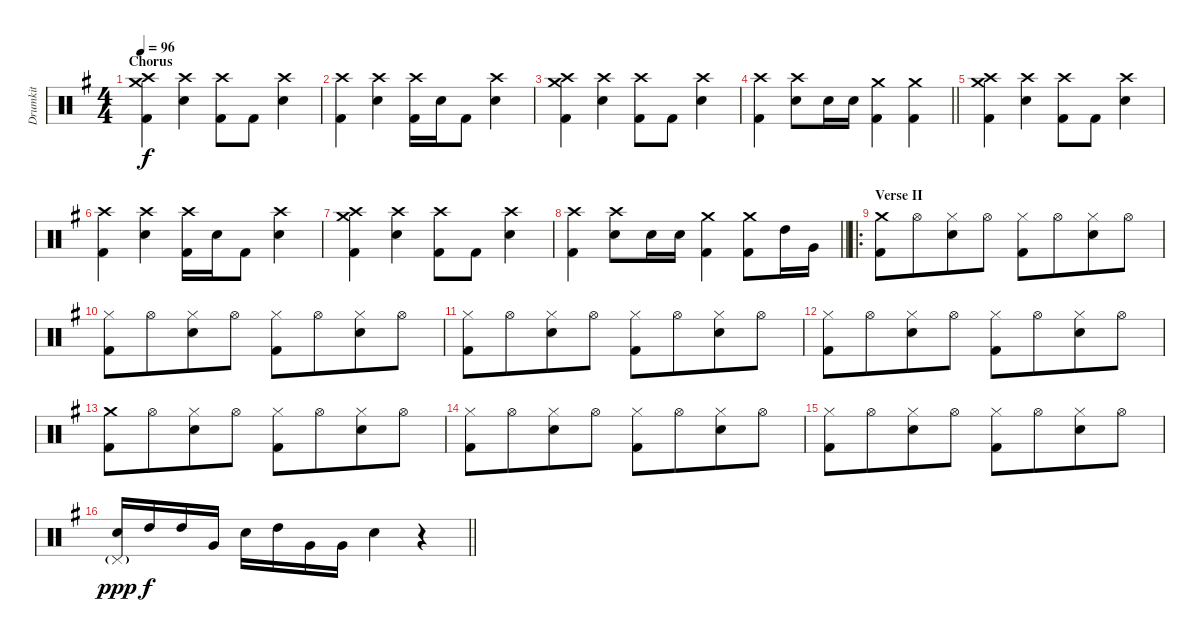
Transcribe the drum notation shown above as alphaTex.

\track ("Drumkit" "Drumkit") {instrument percussion}
\staff {score}
\articulation defaults
\ts (4 4)
\section ("" "Chorus")
\tempo 96
\clef neutral
\ks eminor
("Crash high (hit)" "Crash medium (hit)" "Kick (hit) 2").4{dy f} ("Crash high (hit)" "Electric Snare (hit)").4 ("Crash high (hit)" "Kick (hit) 2").8 "Kick (hit) 2".8 ("Crash high (hit)" "Electric Snare (hit)").4 |
("Crash high (hit)" "Kick (hit) 2").4 ("Crash high (hit)" "Electric Snare (hit)").4 ("Crash high (hit)" "Kick (hit) 2").16 "Electric Snare (hit)".16 "Kick (hit) 2".8 ("Crash high (hit)" "Electric Snare (hit)").4 |
("Crash high (hit)" "Crash medium (hit)" "Kick (hit) 2").4 ("Crash high (hit)" "Electric Snare (hit)").4 ("Crash high (hit)" "Kick (hit) 2").8 "Kick (hit) 2".8 ("Crash high (hit)" "Electric Snare (hit)").4 |
\barLineRight lightlight
("Crash high (hit)" "Kick (hit) 2").4 ("Crash high (hit)" "Electric Snare (hit)").8 "Electric Snare (hit)".16 "Electric Snare (hit)".16 ("Crash medium (hit)" "Kick (hit) 2").4 ("Crash medium (hit)" "Kick (hit) 2").4 |
("Crash high (hit)" "Crash medium (hit)" "Kick (hit) 2").4 ("Crash high (hit)" "Electric Snare (hit)").4 ("Crash high (hit)" "Kick (hit) 2").8 "Kick (hit) 2".8 ("Crash high (hit)" "Electric Snare (hit)").4 |
("Crash high (hit)" "Kick (hit) 2").4 ("Crash high (hit)" "Electric Snare (hit)").4 ("Crash high (hit)" "Kick (hit) 2").16 "Electric Snare (hit)".16 "Kick (hit) 2".8 ("Crash high (hit)" "Electric Snare (hit)").4 |
("Crash high (hit)" "Crash medium (hit)" "Kick (hit) 2").4 ("Crash high (hit)" "Electric Snare (hit)").4 ("Crash high (hit)" "Kick (hit) 2").8 "Kick (hit) 2".8 ("Crash high (hit)" "Electric Snare (hit)").4 |
\barLineRight lightlight
("Crash high (hit)" "Kick (hit) 2").4 ("Crash high (hit)" "Electric Snare (hit)").8 "Electric Snare (hit)".16 "Electric Snare (hit)".16 ("Crash medium (hit)" "Kick (hit) 2").4 ("Crash medium (hit)" "Kick (hit) 2").8 "High Tom (hit)".16 "Very Low Tom (hit)".16 |
\ro
\section ("" "Verse II")
("Crash medium (hit)" "Kick (hit) 2").8 "Hi-Hat (open)".8{beam merge} ("Hi-Hat (closed)" "Electric Snare (hit)").8 "Hi-Hat (open)".8 ("Hi-Hat (closed)" "Kick (hit) 2").8 "Hi-Hat (open)".8{beam merge} ("Hi-Hat (closed)" "Electric Snare (hit)").8 "Hi-Hat (open)".8 |
("Hi-Hat (closed)" "Kick (hit) 2").8 "Hi-Hat (open)".8{beam merge} ("Hi-Hat (closed)" "Electric Snare (hit)").8 "Hi-Hat (open)".8 ("Hi-Hat (closed)" "Kick (hit) 2").8 "Hi-Hat (open)".8{beam merge} ("Hi-Hat (closed)" "Electric Snare (hit)").8 "Hi-Hat (open)".8 |
("Hi-Hat (closed)" "Kick (hit) 2").8 "Hi-Hat (open)".8{beam merge} ("Hi-Hat (closed)" "Electric Snare (hit)").8 "Hi-Hat (open)".8 ("Hi-Hat (closed)" "Kick (hit) 2").8 "Hi-Hat (open)".8{beam merge} ("Hi-Hat (closed)" "Electric Snare (hit)").8 "Hi-Hat (open)".8 |
("Hi-Hat (closed)" "Kick (hit) 2").8 "Hi-Hat (open)".8{beam merge} ("Hi-Hat (closed)" "Electric Snare (hit)").8 "Hi-Hat (open)".8 ("Hi-Hat (closed)" "Kick (hit) 2").8 "Hi-Hat (open)".8{beam merge} ("Hi-Hat (closed)" "Electric Snare (hit)").8 "Hi-Hat (open)".8 |
("Crash medium (hit)" "Kick (hit) 2").8 "Hi-Hat (open)".8{beam merge} ("Hi-Hat (closed)" "Electric Snare (hit)").8 "Hi-Hat (open)".8 ("Hi-Hat (closed)" "Kick (hit) 2").8 "Hi-Hat (open)".8{beam merge} ("Hi-Hat (closed)" "Electric Snare (hit)").8 "Hi-Hat (open)".8 |
("Hi-Hat (closed)" "Kick (hit) 2").8 "Hi-Hat (open)".8{beam merge} ("Hi-Hat (closed)" "Electric Snare (hit)").8 "Hi-Hat (open)".8 ("Hi-Hat (closed)" "Kick (hit) 2").8 "Hi-Hat (open)".8{beam merge} ("Hi-Hat (closed)" "Electric Snare (hit)").8 "Hi-Hat (open)".8 |
("Hi-Hat (closed)" "Kick (hit) 2").8 "Hi-Hat (open)".8{beam merge} ("Hi-Hat (closed)" "Electric Snare (hit)").8 "Hi-Hat (open)".8 ("Hi-Hat (closed)" "Kick (hit) 2").8 "Hi-Hat (open)".8{beam merge} ("Hi-Hat (closed)" "Electric Snare (hit)").8 "Hi-Hat (open)".8 |
\barLineRight lightlight
("Pedal Hi-Hat (hit)"{g} "Electric Snare (hit)").16{dy ppp} "High Tom (hit)".16{dy f} "High Tom (hit)".16 "Very Low Tom (hit)".16 "Electric Snare (hit)".16 "High Tom (hit)".16 "Very Low Tom (hit)".16 "Very Low Tom (hit)".16 "Electric Snare (hit)".4{beam merge} r.4
